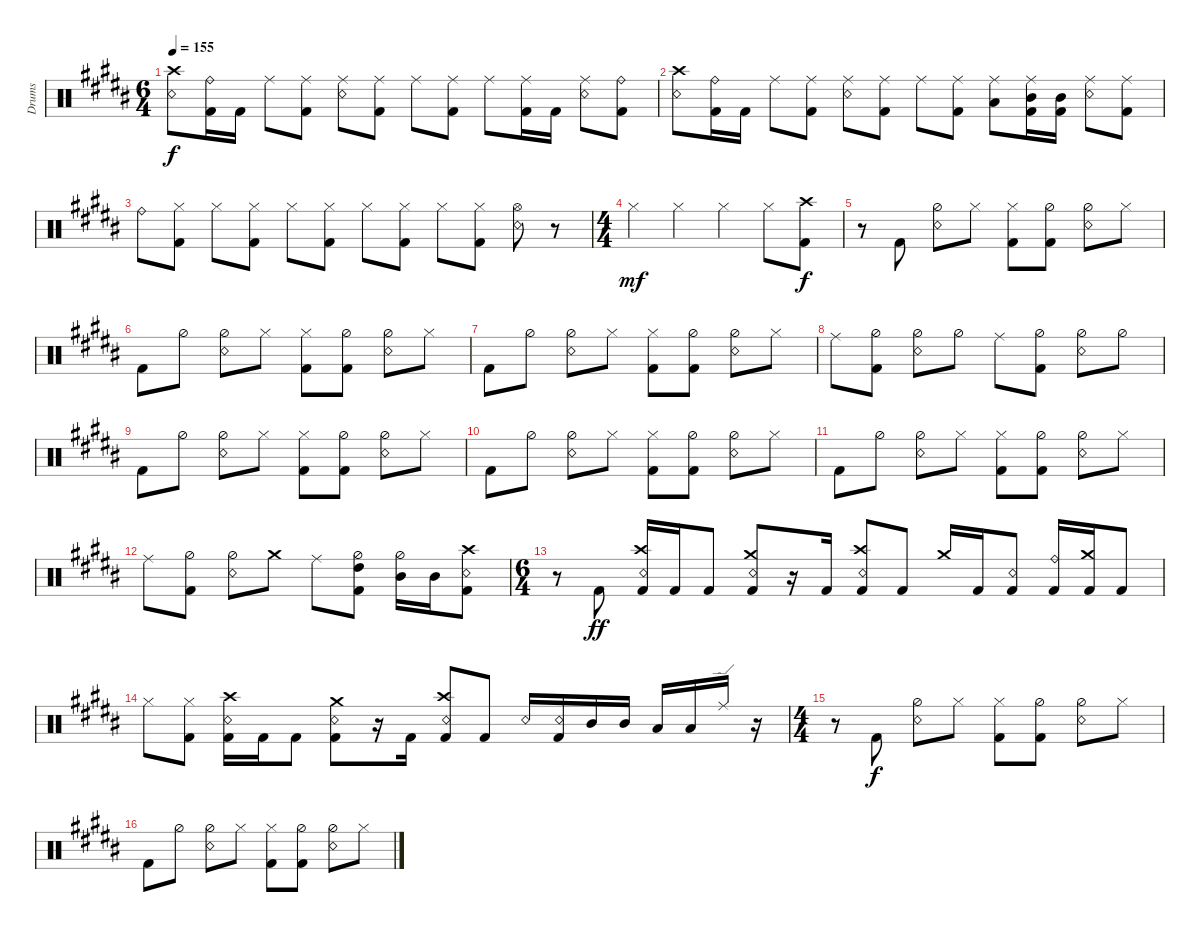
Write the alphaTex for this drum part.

\bracketExtendMode groupsimilarinstruments
\otherSystemsTrackNameOrientation horizontal
\track ("Drumkit" "Drums") {instrument percussion}
\staff {score}
\articulation defaults
\ts (6 4)
\tempo 155
\clef neutral
\ks b
("Snare (rim shot)"{acc bb} "Crash high (hit)"{acc bb}).8{dy f beam Down} ("Ride (bell)"{acc bb} "Kick (hit) 2"{acc bb}).16{beam Down} "Kick (hit) 2"{acc bb}.16{beam Down} "Ride (middle)"{acc bb}.8{beam Down} ("Ride (middle)"{acc bb} "Kick (hit) 2"{acc bb}).8{beam Down} ("Ride (middle)"{acc bb} "Snare (rim shot)"{acc bb}).8{beam Down} ("Ride (middle)"{acc bb} "Kick (hit) 2"{acc bb}).8{beam Down} "Ride (middle)"{acc bb}.8{beam Down} ("Kick (hit) 2"{acc bb} "Ride (middle)"{acc bb}).8{beam Down} "Ride (middle)"{acc bb}.8{beam Down} ("Ride (middle)"{acc bb} "Kick (hit) 2"{acc bb}).16{beam Down} "Kick (hit) 2"{acc bb}.16{beam Down} ("Ride (middle)"{acc bb} "Snare (rim shot)"{acc bb}).8{beam Down} ("Ride (bell)"{acc bb} "Kick (hit) 2"{acc bb}).8{beam Down} |
("Snare (rim shot)"{acc bb} "Crash high (hit)"{acc bb}).8{beam Down} ("Ride (bell)"{acc bb} "Kick (hit) 2"{acc bb}).16{beam Down} "Kick (hit) 2"{acc bb}.16{beam Down} "Ride (middle)"{acc bb}.8{beam Down} ("Ride (middle)"{acc bb} "Kick (hit) 2"{acc bb}).8{beam Down} ("Ride (middle)"{acc bb} "Snare (rim shot)"{acc bb}).8{beam Down} ("Ride (middle)"{acc bb} "Kick (hit) 2"{acc bb}).8{beam Down} "Ride (middle)"{acc bb}.8{beam Down} ("Kick (hit) 2"{acc bb} "Ride (middle)"{acc bb}).8{beam Down} ("Ride (middle)"{acc bb} "Low Tom (hit)"{acc bb}).8{beam Down} ("Ride (middle)"{acc bb} "Kick (hit) 2"{acc bb} "Mid Tom (hit)"{acc bb}).16{beam Down} ("Kick (hit) 2"{acc bb} "Mid Tom (hit)"{acc bb}).16{beam Down} ("Ride (middle)"{acc bb} "Snare (rim shot)"{acc bb}).8{beam Down} ("Kick (hit) 2"{acc bb} "Ride (middle)"{acc bb}).8{beam Down} |
"Ride (bell)"{acc bb}.8{beam Down} ("Hi-Hat (closed)"{acc bb} "Kick (hit) 2"{acc bb}).8{beam Down} "Hi-Hat (closed)"{acc bb}.8{beam Down} ("Hi-Hat (closed)"{acc bb} "Kick (hit) 2"{acc bb}).8{beam Down} "Hi-Hat (closed)"{acc bb}.8{beam Down} ("Hi-Hat (closed)"{acc bb} "Kick (hit) 2"{acc bb}).8{beam Down} "Hi-Hat (closed)"{acc bb}.8{beam Down} ("Hi-Hat (closed)"{acc bb} "Kick (hit) 2"{acc bb}).8{beam Down} "Hi-Hat (closed)"{acc bb}.8{beam Down} ("Hi-Hat (closed)"{acc bb} "Kick (hit) 2"{acc bb}).8{beam Down} ("Hi-Hat (open)"{acc bb} "Snare (rim shot)"{acc bb}).8{beam Down} r.8{beam Down} |
\ts (4 4)
"Hi-Hat (closed)"{acc bb}.4{dy mf beam Down} "Hi-Hat (closed)"{acc bb}.4{beam Down} "Hi-Hat (closed)"{acc bb}.4{beam Down} "Hi-Hat (closed)"{acc bb}.8{beam Down} ("Crash high (hit)"{acc bb} "Kick (hit) 2"{acc bb}).8{dy f beam Down} |
r.8{beam Down} "Kick (hit) 2"{acc bb}.8{beam Up} ("Hi-Hat (half)"{acc bb} "Snare (rim shot)"{acc bb}).8{beam Down} "Hi-Hat (closed)"{acc bb}.8{beam Down} ("Kick (hit) 2"{acc bb} "Hi-Hat (closed)"{acc bb}).8{beam Down} ("Hi-Hat (half)"{acc bb} "Kick (hit) 2"{acc bb}).8{beam Down} ("Snare (rim shot)"{acc bb} "Hi-Hat (half)"{acc bb}).8{beam Down} "Hi-Hat (closed)"{acc bb}.8{beam Down} |
"Kick (hit) 2"{acc bb}.8{beam Down} "Hi-Hat (half)"{acc bb}.8{beam Down} ("Hi-Hat (half)"{acc bb} "Snare (rim shot)"{acc bb}).8{beam Down} "Hi-Hat (closed)"{acc bb}.8{beam Down} ("Kick (hit) 2"{acc bb} "Hi-Hat (closed)"{acc bb}).8{beam Down} ("Hi-Hat (half)"{acc bb} "Kick (hit) 2"{acc bb}).8{beam Down} ("Snare (rim shot)"{acc bb} "Hi-Hat (half)"{acc bb}).8{beam Down} "Hi-Hat (closed)"{acc bb}.8{beam Down} |
"Kick (hit) 2"{acc bb}.8{beam Down} "Hi-Hat (half)"{acc bb}.8{beam Down} ("Hi-Hat (half)"{acc bb} "Snare (rim shot)"{acc bb}).8{beam Down} "Hi-Hat (closed)"{acc bb}.8{beam Down} ("Kick (hit) 2"{acc bb} "Hi-Hat (closed)"{acc bb}).8{beam Down} ("Hi-Hat (half)"{acc bb} "Kick (hit) 2"{acc bb}).8{beam Down} ("Snare (rim shot)"{acc bb} "Hi-Hat (half)"{acc bb}).8{beam Down} "Hi-Hat (closed)"{acc bb}.8{beam Down} |
"Ride (middle)"{acc bb}.8{beam Down} ("Kick (hit) 2"{acc bb} "Hi-Hat (half)"{acc bb}).8{beam Down} ("Snare (rim shot)"{acc bb} "Hi-Hat (half)"{acc bb}).8{beam Down} "Hi-Hat (half)"{acc bb}.8{beam Down} "Ride (middle)"{acc bb}.8{beam Down} ("Kick (hit) 2"{acc bb} "Hi-Hat (half)"{acc bb}).8{beam Down} ("Snare (rim shot)"{acc bb} "Hi-Hat (half)"{acc bb}).8{beam Down} "Hi-Hat (half)"{acc bb}.8{beam Down} |
"Kick (hit) 2"{acc bb}.8{beam Down} "Hi-Hat (half)"{acc bb}.8{beam Down} ("Hi-Hat (half)"{acc bb} "Snare (rim shot)"{acc bb}).8{beam Down} "Hi-Hat (closed)"{acc bb}.8{beam Down} ("Kick (hit) 2"{acc bb} "Hi-Hat (closed)"{acc bb}).8{beam Down} ("Hi-Hat (half)"{acc bb} "Kick (hit) 2"{acc bb}).8{beam Down} ("Snare (rim shot)"{acc bb} "Hi-Hat (half)"{acc bb}).8{beam Down} "Hi-Hat (closed)"{acc bb}.8{beam Down} |
"Kick (hit) 2"{acc bb}.8{beam Down} "Hi-Hat (half)"{acc bb}.8{beam Down} ("Hi-Hat (half)"{acc bb} "Snare (rim shot)"{acc bb}).8{beam Down} "Hi-Hat (closed)"{acc bb}.8{beam Down} ("Kick (hit) 2"{acc bb} "Hi-Hat (closed)"{acc bb}).8{beam Down} ("Hi-Hat (half)"{acc bb} "Kick (hit) 2"{acc bb}).8{beam Down} ("Snare (rim shot)"{acc bb} "Hi-Hat (half)"{acc bb}).8{beam Down} "Hi-Hat (closed)"{acc bb}.8{beam Down} |
"Kick (hit) 2"{acc bb}.8{beam Down} "Hi-Hat (half)"{acc bb}.8{beam Down} ("Hi-Hat (half)"{acc bb} "Snare (rim shot)"{acc bb}).8{beam Down} "Hi-Hat (closed)"{acc bb}.8{beam Down} ("Kick (hit) 2"{acc bb} "Hi-Hat (closed)"{acc bb}).8{beam Down} ("Hi-Hat (half)"{acc bb} "Kick (hit) 2"{acc bb}).8{beam Down} ("Snare (rim shot)"{acc bb} "Hi-Hat (half)"{acc bb}).8{beam Down} "Hi-Hat (closed)"{acc bb}.8{beam Down} |
"Ride (middle)"{acc bb}.8{beam Down} ("Kick (hit) 2"{acc bb} "Hi-Hat (half)"{acc bb}).8{beam Down} ("Snare (rim shot)"{acc bb} "Hi-Hat (half)"{acc bb}).8{beam Down} "Crash medium (hit)"{acc bb}.8{beam Down} "Ride (middle)"{acc bb}.8{beam Down} ("Kick (hit) 2"{acc bb} "Hi-Hat (half)"{acc bb} "High Tom (hit)"{acc bb}).8{beam Down} ("Hi-Hat (half)"{acc bb} "Mid Tom (hit)"{acc bb}).16{beam Down} "Mid Tom (hit)"{acc bb}.16{beam Down} ("Snare (rim shot)"{acc bb} "Kick (hit) 2"{acc bb} "Crash high (hit)"{acc bb}).8{beam Down} |
\ts (6 4)
r.8{beam Down} "Kick (hit) 2"{acc bb}.8{dy ff beam Up} ("Kick (hit) 2"{acc bb} "Crash high (hit)"{acc bb} "Snare (rim shot)"{acc bb}).16{beam Up} "Kick (hit) 2"{acc bb}.16{beam Up} "Kick (hit) 2"{acc bb}.8{beam Up} ("Kick (hit) 2"{acc bb} "Crash medium (hit)"{acc bb} "Snare (rim shot)"{acc bb}).8{beam Up} r.16{beam Up} "Kick (hit) 2"{acc bb}.16{beam Up} ("Kick (hit) 2"{acc bb} "Crash high (hit)"{acc bb} "Snare (rim shot)"{acc bb}).8{beam Up} "Kick (hit) 2"{acc bb}.8{beam Up} "Crash medium (hit)"{acc bb}.16{beam Up} "Kick (hit) 2"{acc bb}.16{beam Up} ("Kick (hit) 2"{acc bb} "Snare (rim shot)"{acc bb}).8{beam Up} ("Kick (hit) 2"{acc bb} "Ride (bell)"{acc bb}).16{beam Up} ("Kick (hit) 2"{acc bb} "Crash medium (hit)"{acc bb}).16{beam Up} "Kick (hit) 2"{acc bb}.8{beam Up} |
"Hi-Hat (closed)"{acc bb}.8{beam Down} ("Kick (hit) 2"{acc bb} "Hi-Hat (closed)"{acc bb}).8{beam Down} ("Kick (hit) 2"{acc bb} "Crash high (hit)"{acc bb} "Snare (rim shot)"{acc bb}).16{beam Down} "Kick (hit) 2"{acc bb}.16{beam Down} "Kick (hit) 2"{acc bb}.8{beam Down} ("Kick (hit) 2"{acc bb} "Crash medium (hit)"{acc bb} "Snare (rim shot)"{acc bb}).8{beam Down} r.16{beam Down} "Kick (hit) 2"{acc bb}.16{beam Down} ("Kick (hit) 2"{acc bb} "Crash high (hit)"{acc bb} "Snare (rim shot)"{acc bb}).8{beam Up} "Kick (hit) 2"{acc bb}.8{beam Up} "Snare (rim shot)"{acc bb}.16{beam Up} ("Kick (hit) 2"{acc bb} "Snare (rim shot)"{acc bb}).16{beam Up} "Mid Tom (hit)"{acc bb}.16{beam Up} "Mid Tom (hit)"{acc bb}.16{beam Up} "Low Tom (hit)"{acc bb}.16{beam Up} "Low Tom (hit)"{acc bb}.16{beam Up} "Ride (edge)"{acc bb}.16{beam Up} r.16{beam Up} |
\ts (4 4)
r.8{beam Down} "Kick (hit) 2"{acc bb}.8{dy f beam Up} ("Hi-Hat (half)"{acc bb} "Snare (rim shot)"{acc bb}).8{beam Down} "Hi-Hat (closed)"{acc bb}.8{beam Down} ("Kick (hit) 2"{acc bb} "Hi-Hat (closed)"{acc bb}).8{beam Down} ("Hi-Hat (half)"{acc bb} "Kick (hit) 2"{acc bb}).8{beam Down} ("Snare (rim shot)"{acc bb} "Hi-Hat (half)"{acc bb}).8{beam Down} "Hi-Hat (closed)"{acc bb}.8{beam Down} |
"Kick (hit) 2"{acc bb}.8{beam Down} "Hi-Hat (half)"{acc bb}.8{beam Down} ("Hi-Hat (half)"{acc bb} "Snare (rim shot)"{acc bb}).8{beam Down} "Hi-Hat (closed)"{acc bb}.8{beam Down} ("Kick (hit) 2"{acc bb} "Hi-Hat (closed)"{acc bb}).8{beam Down} ("Hi-Hat (half)"{acc bb} "Kick (hit) 2"{acc bb}).8{beam Down} ("Snare (rim shot)"{acc bb} "Hi-Hat (half)"{acc bb}).8{beam Down} "Hi-Hat (closed)"{acc bb}.8{beam Down}
